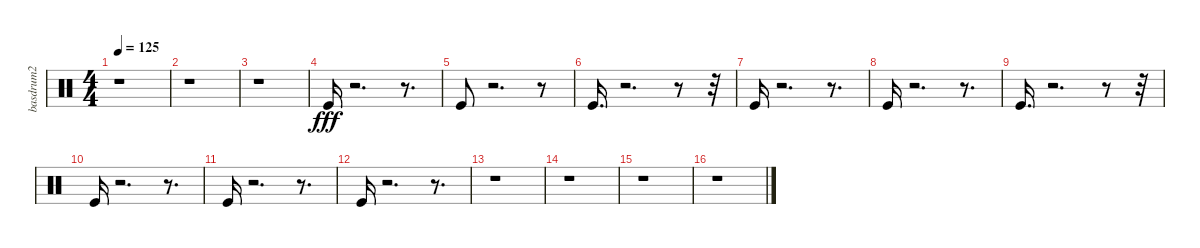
\track ("basdrum2" "basdrum2") {instrument percussion}
\staff {score}
\articulation defaults
\ts (4 4)
\tempo 125
\clef neutral
\ks c
r.1{dy fff} |
r.1 |
r.1 |
"Kick (hit)".16 r.2{d} r.8{d} |
"Kick (hit)".8 r.2{d} r.8 |
"Kick (hit)".16{d} r.2{d} r.8 r.32 |
"Kick (hit)".16 r.2{d} r.8{d} |
"Kick (hit)".16 r.2{d} r.8{d} |
"Kick (hit)".16{d} r.2{d} r.8 r.32 |
"Kick (hit)".16 r.2{d} r.8{d} |
"Kick (hit)".16 r.2{d} r.8{d} |
"Kick (hit)".16 r.2{d} r.8{d} |
r.1 |
r.1 |
r.1 |
r.1
